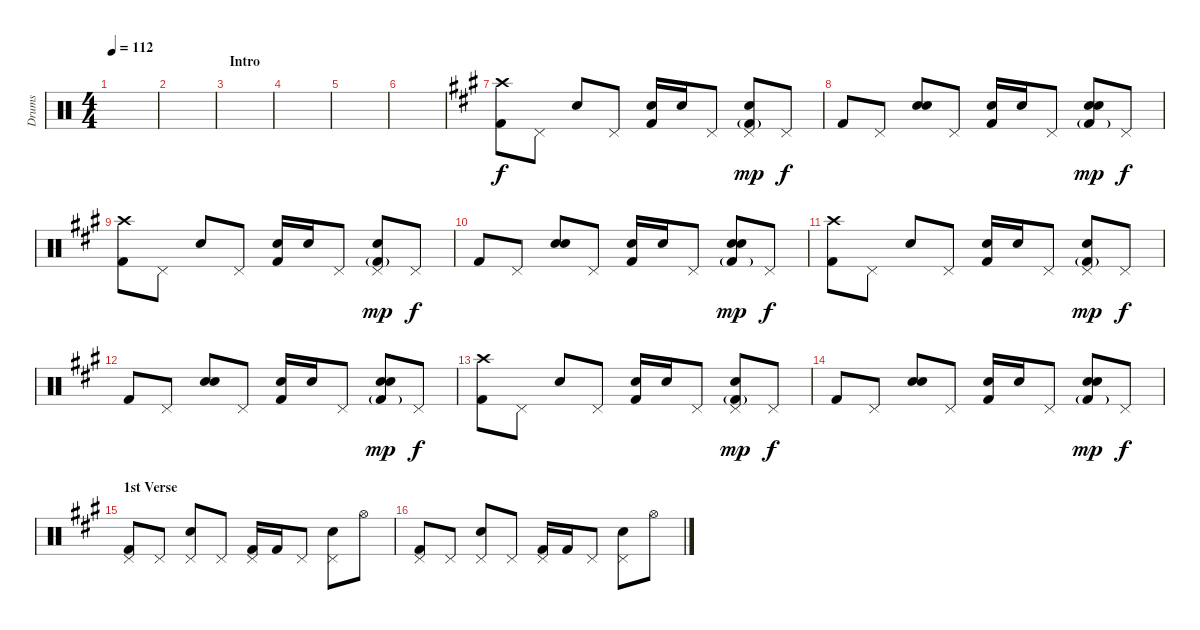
\track ("Drums" "Drums") {instrument percussion}
\staff {score}
\articulation defaults
\ts (4 4)
\tempo 112
\clef neutral
\ks c
|
|
\section ("" "Intro")
|
|
|
|
\ks a
("Crash high (hit)" "Kick (hit) 2").8 "Pedal Hi-Hat (hit)".8 "Electric Snare (hit)".8 "Pedal Hi-Hat (hit)".8 ("Snare (hit)"{x} "Kick (hit) 2").16 "Electric Snare (hit)".16 "Pedal Hi-Hat (hit)".8 ("Pedal Hi-Hat (hit)"{x} "Electric Snare (hit)" "Kick (hit) 2"{g}).8{dy mp} "Pedal Hi-Hat (hit)".8{dy f} |
"Kick (hit) 2".8 "Pedal Hi-Hat (hit)".8 ("Snare (hit)"{x} "Electric Snare (hit)").8 "Pedal Hi-Hat (hit)".8 ("Snare (hit)"{x} "Kick (hit) 2").16 "Electric Snare (hit)".16 "Pedal Hi-Hat (hit)".8 ("Snare (hit)"{x} "Electric Snare (hit)" "Kick (hit) 2"{g}).8{dy mp} "Pedal Hi-Hat (hit)".8{dy f} |
("Crash high (hit)" "Kick (hit) 2").8 "Pedal Hi-Hat (hit)".8 "Electric Snare (hit)".8 "Pedal Hi-Hat (hit)".8 ("Snare (hit)"{x} "Kick (hit) 2").16 "Electric Snare (hit)".16 "Pedal Hi-Hat (hit)".8 ("Pedal Hi-Hat (hit)"{x} "Electric Snare (hit)" "Kick (hit) 2"{g}).8{dy mp} "Pedal Hi-Hat (hit)".8{dy f} |
"Kick (hit) 2".8 "Pedal Hi-Hat (hit)".8 ("Snare (hit)"{x} "Electric Snare (hit)").8 "Pedal Hi-Hat (hit)".8 ("Snare (hit)"{x} "Kick (hit) 2").16 "Electric Snare (hit)".16 "Pedal Hi-Hat (hit)".8 ("Snare (hit)"{x} "Electric Snare (hit)" "Kick (hit) 2"{g}).8{dy mp} "Pedal Hi-Hat (hit)".8{dy f} |
("Crash high (hit)" "Kick (hit) 2").8 "Pedal Hi-Hat (hit)".8 "Electric Snare (hit)".8 "Pedal Hi-Hat (hit)".8 ("Snare (hit)"{x} "Kick (hit) 2").16 "Electric Snare (hit)".16 "Pedal Hi-Hat (hit)".8 ("Pedal Hi-Hat (hit)"{x} "Electric Snare (hit)" "Kick (hit) 2"{g}).8{dy mp} "Pedal Hi-Hat (hit)".8{dy f} |
"Kick (hit) 2".8 "Pedal Hi-Hat (hit)".8 ("Snare (hit)"{x} "Electric Snare (hit)").8 "Pedal Hi-Hat (hit)".8 ("Snare (hit)"{x} "Kick (hit) 2").16 "Electric Snare (hit)".16 "Pedal Hi-Hat (hit)".8 ("Snare (hit)"{x} "Electric Snare (hit)" "Kick (hit) 2"{g}).8{dy mp} "Pedal Hi-Hat (hit)".8{dy f} |
("Crash high (hit)" "Kick (hit) 2").8 "Pedal Hi-Hat (hit)".8 "Electric Snare (hit)".8 "Pedal Hi-Hat (hit)".8 ("Snare (hit)"{x} "Kick (hit) 2").16 "Electric Snare (hit)".16 "Pedal Hi-Hat (hit)".8 ("Pedal Hi-Hat (hit)"{x} "Electric Snare (hit)" "Kick (hit) 2"{g}).8{dy mp} "Pedal Hi-Hat (hit)".8{dy f} |
"Kick (hit) 2".8 "Pedal Hi-Hat (hit)".8 ("Snare (hit)"{x} "Electric Snare (hit)").8 "Pedal Hi-Hat (hit)".8 ("Snare (hit)"{x} "Kick (hit) 2").16 "Electric Snare (hit)".16 "Pedal Hi-Hat (hit)".8 ("Snare (hit)"{x} "Electric Snare (hit)" "Kick (hit) 2"{g}).8{dy mp} "Pedal Hi-Hat (hit)".8{dy f} |
\section ("" "1st Verse")
("Pedal Hi-Hat (hit)" "Kick (hit) 2").8 "Pedal Hi-Hat (hit)".8 ("Pedal Hi-Hat (hit)" "Electric Snare (hit)").8 "Pedal Hi-Hat (hit)".8 ("Pedal Hi-Hat (hit)" "Kick (hit) 2").16 "Kick (hit) 2".16 "Pedal Hi-Hat (hit)".8 ("Pedal Hi-Hat (hit)" "Electric Snare (hit)").8 "Hi-Hat (open)".8 |
("Pedal Hi-Hat (hit)" "Kick (hit) 2").8 "Pedal Hi-Hat (hit)".8 ("Pedal Hi-Hat (hit)" "Electric Snare (hit)").8 "Pedal Hi-Hat (hit)".8 ("Pedal Hi-Hat (hit)" "Kick (hit) 2").16 "Kick (hit) 2".16 "Pedal Hi-Hat (hit)".8 ("Pedal Hi-Hat (hit)" "Electric Snare (hit)").8 "Hi-Hat (open)".8
